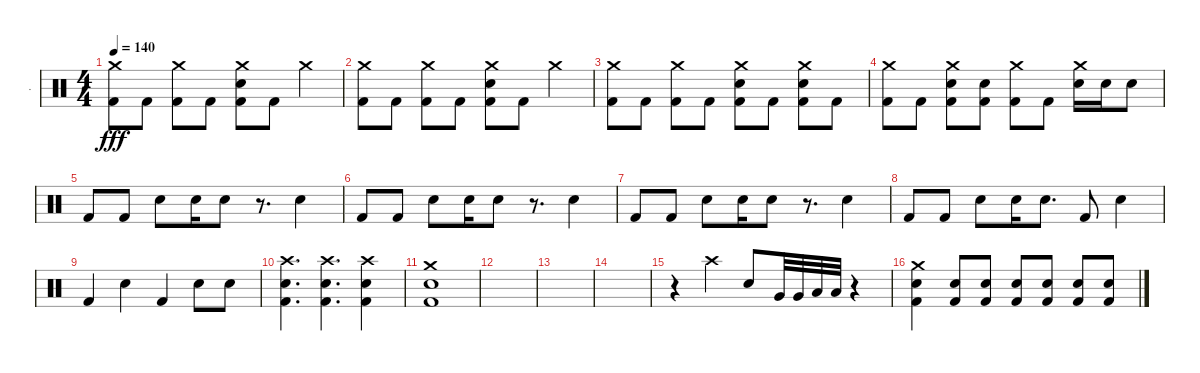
\track ("." ".") {instrument percussion}
\staff {score}
\articulation defaults
\ts (4 4)
\tempo 140
\clef neutral
\ks c
("Crash medium (hit)" "Kick (hit) 2").8{dy fff} "Kick (hit) 2".8 ("Crash medium (hit)" "Kick (hit) 2").8 "Kick (hit) 2".8 ("Crash medium (hit)" "Electric Snare (hit)" "Kick (hit) 2").8 "Kick (hit) 2".8 "Crash medium (hit)".4 |
("Crash medium (hit)" "Kick (hit) 2").8 "Kick (hit) 2".8 ("Crash medium (hit)" "Kick (hit) 2").8 "Kick (hit) 2".8 ("Crash medium (hit)" "Electric Snare (hit)" "Kick (hit) 2").8 "Kick (hit) 2".8 "Crash medium (hit)".4 |
("Crash medium (hit)" "Kick (hit) 2").8 "Kick (hit) 2".8 ("Crash medium (hit)" "Kick (hit) 2").8 "Kick (hit) 2".8 ("Crash medium (hit)" "Electric Snare (hit)" "Kick (hit) 2").8 "Kick (hit) 2".8 ("Crash medium (hit)" "Electric Snare (hit)" "Kick (hit) 2").8 "Kick (hit) 2".8 |
("Crash medium (hit)" "Kick (hit) 2").8 "Kick (hit) 2".8 ("Crash medium (hit)" "Electric Snare (hit)" "Kick (hit) 2").8 ("Electric Snare (hit)" "Kick (hit) 2").8 ("Crash medium (hit)" "Kick (hit) 2").8 "Kick (hit) 2".8 ("Crash medium (hit)" "Electric Snare (hit)").16 "Electric Snare (hit)".16 "Electric Snare (hit)".8 |
"Kick (hit) 2".8 "Kick (hit) 2".8 "Electric Snare (hit)".8 "Electric Snare (hit)".16 "Electric Snare (hit)".8 r.8{d} "Electric Snare (hit)".4 |
"Kick (hit) 2".8 "Kick (hit) 2".8 "Electric Snare (hit)".8 "Electric Snare (hit)".16 "Electric Snare (hit)".8 r.8{d} "Electric Snare (hit)".4 |
"Kick (hit) 2".8 "Kick (hit) 2".8 "Electric Snare (hit)".8 "Electric Snare (hit)".16 "Electric Snare (hit)".8 r.8{d} "Electric Snare (hit)".4 |
"Kick (hit) 2".8 "Kick (hit) 2".8 "Electric Snare (hit)".8 "Electric Snare (hit)".16 "Electric Snare (hit)".8{d} "Kick (hit) 2".8 "Electric Snare (hit)".4 |
"Kick (hit) 2".4 "Electric Snare (hit)".4 "Kick (hit) 2".4 "Electric Snare (hit)".8 "Electric Snare (hit)".8 |
("Crash high (hit)" "Electric Snare (hit)" "Kick (hit) 2").4{d} ("Crash high (hit)" "Electric Snare (hit)" "Kick (hit) 2").4{d} ("Crash high (hit)" "Electric Snare (hit)" "Kick (hit) 2").4 |
("Crash medium (hit)" "Electric Snare (hit)" "Kick (hit) 2").1 |
|
|
|
r.4 "Crash high (hit)".4 "Electric Snare (hit)".8 "Very Low Tom (hit)".32 "Very Low Tom (hit)".32 "Low Floor Tom (hit)".32 "Low Floor Tom (hit)".32 r.4 |
("Crash medium (hit)" "Electric Snare (hit)" "Kick (hit) 2").4 ("Electric Snare (hit)" "Kick (hit) 2").8 ("Electric Snare (hit)" "Kick (hit) 2").8 ("Electric Snare (hit)" "Kick (hit) 2").8 ("Electric Snare (hit)" "Kick (hit) 2").8 ("Electric Snare (hit)" "Kick (hit) 2").8 ("Electric Snare (hit)" "Kick (hit) 2").8
